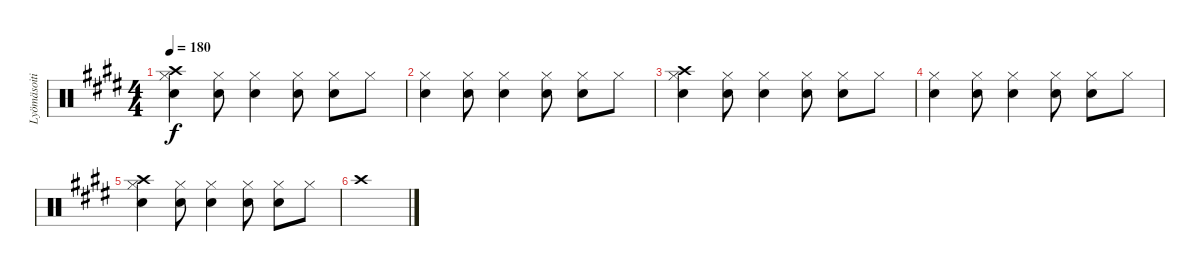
\track ("Lyömäsoitin" "Lyömäsoiti") {instrument percussion}
\staff {score}
\articulation defaults
\ts (4 4)
\tempo 180
\clef neutral
\ks e
("Crash high (hit)" "Hi-Hat (closed)" "Electric Snare (hit)").4{dy f} ("Hi-Hat (closed)" "Electric Snare (hit)").8 ("Hi-Hat (closed)" "Electric Snare (hit)").4 ("Hi-Hat (closed)" "Electric Snare (hit)").8 ("Hi-Hat (closed)" "Electric Snare (hit)").8 "Hi-Hat (closed)".8 |
("Hi-Hat (closed)" "Electric Snare (hit)").4 ("Hi-Hat (closed)" "Electric Snare (hit)").8 ("Hi-Hat (closed)" "Electric Snare (hit)").4 ("Hi-Hat (closed)" "Electric Snare (hit)").8 ("Hi-Hat (closed)" "Electric Snare (hit)").8 "Hi-Hat (closed)".8 |
("Crash high (hit)" "Hi-Hat (closed)" "Electric Snare (hit)").4 ("Hi-Hat (closed)" "Electric Snare (hit)").8 ("Hi-Hat (closed)" "Electric Snare (hit)").4 ("Hi-Hat (closed)" "Electric Snare (hit)").8 ("Hi-Hat (closed)" "Electric Snare (hit)").8 "Hi-Hat (closed)".8 |
("Hi-Hat (closed)" "Electric Snare (hit)").4 ("Hi-Hat (closed)" "Electric Snare (hit)").8 ("Hi-Hat (closed)" "Electric Snare (hit)").4 ("Hi-Hat (closed)" "Electric Snare (hit)").8 ("Hi-Hat (closed)" "Electric Snare (hit)").8 "Hi-Hat (closed)".8 |
("Crash high (hit)" "Hi-Hat (closed)" "Electric Snare (hit)").4 ("Hi-Hat (closed)" "Electric Snare (hit)").8 ("Hi-Hat (closed)" "Electric Snare (hit)").4 ("Hi-Hat (closed)" "Electric Snare (hit)").8 ("Hi-Hat (closed)" "Electric Snare (hit)").8 "Hi-Hat (closed)".8 |
"Crash high (hit)".1
